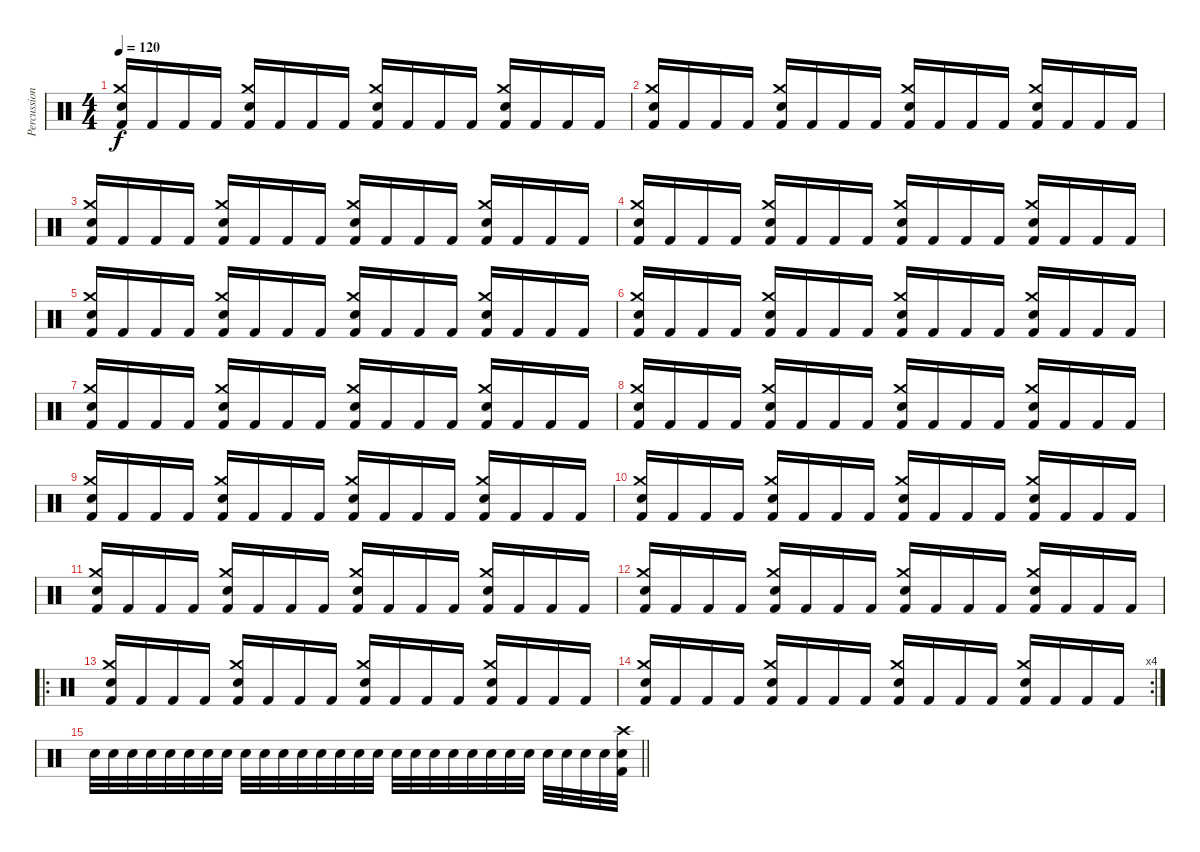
\track ("Percussion" "Percussion") {instrument percussion}
\staff {score}
\articulation defaults
\ts (4 4)
\tempo 120
\clef neutral
\ks c
("Electric Snare (hit)" "Crash medium (hit)" "Kick (hit) 2").16{dy f} "Kick (hit) 2".16 "Kick (hit) 2".16 "Kick (hit) 2".16 ("Electric Snare (hit)" "Crash medium (hit)" "Kick (hit) 2").16 "Kick (hit) 2".16 "Kick (hit) 2".16 "Kick (hit) 2".16 ("Electric Snare (hit)" "Crash medium (hit)" "Kick (hit) 2").16 "Kick (hit) 2".16 "Kick (hit) 2".16 "Kick (hit) 2".16 ("Electric Snare (hit)" "Crash medium (hit)" "Kick (hit) 2").16 "Kick (hit) 2".16 "Kick (hit) 2".16 "Kick (hit) 2".16 |
("Electric Snare (hit)" "Crash medium (hit)" "Kick (hit) 2").16 "Kick (hit) 2".16 "Kick (hit) 2".16 "Kick (hit) 2".16 ("Electric Snare (hit)" "Crash medium (hit)" "Kick (hit) 2").16 "Kick (hit) 2".16 "Kick (hit) 2".16 "Kick (hit) 2".16 ("Electric Snare (hit)" "Crash medium (hit)" "Kick (hit) 2").16 "Kick (hit) 2".16 "Kick (hit) 2".16 "Kick (hit) 2".16 ("Electric Snare (hit)" "Crash medium (hit)" "Kick (hit) 2").16 "Kick (hit) 2".16 "Kick (hit) 2".16 "Kick (hit) 2".16 |
("Electric Snare (hit)" "Crash medium (hit)" "Kick (hit) 2").16 "Kick (hit) 2".16 "Kick (hit) 2".16 "Kick (hit) 2".16 ("Electric Snare (hit)" "Crash medium (hit)" "Kick (hit) 2").16 "Kick (hit) 2".16 "Kick (hit) 2".16 "Kick (hit) 2".16 ("Electric Snare (hit)" "Crash medium (hit)" "Kick (hit) 2").16 "Kick (hit) 2".16 "Kick (hit) 2".16 "Kick (hit) 2".16 ("Electric Snare (hit)" "Crash medium (hit)" "Kick (hit) 2").16 "Kick (hit) 2".16 "Kick (hit) 2".16 "Kick (hit) 2".16 |
("Electric Snare (hit)" "Crash medium (hit)" "Kick (hit) 2").16 "Kick (hit) 2".16 "Kick (hit) 2".16 "Kick (hit) 2".16 ("Electric Snare (hit)" "Crash medium (hit)" "Kick (hit) 2").16 "Kick (hit) 2".16 "Kick (hit) 2".16 "Kick (hit) 2".16 ("Electric Snare (hit)" "Crash medium (hit)" "Kick (hit) 2").16 "Kick (hit) 2".16 "Kick (hit) 2".16 "Kick (hit) 2".16 ("Electric Snare (hit)" "Crash medium (hit)" "Kick (hit) 2").16 "Kick (hit) 2".16 "Kick (hit) 2".16 "Kick (hit) 2".16 |
("Electric Snare (hit)" "Crash medium (hit)" "Kick (hit) 2").16 "Kick (hit) 2".16 "Kick (hit) 2".16 "Kick (hit) 2".16 ("Electric Snare (hit)" "Crash medium (hit)" "Kick (hit) 2").16 "Kick (hit) 2".16 "Kick (hit) 2".16 "Kick (hit) 2".16 ("Electric Snare (hit)" "Crash medium (hit)" "Kick (hit) 2").16 "Kick (hit) 2".16 "Kick (hit) 2".16 "Kick (hit) 2".16 ("Electric Snare (hit)" "Crash medium (hit)" "Kick (hit) 2").16 "Kick (hit) 2".16 "Kick (hit) 2".16 "Kick (hit) 2".16 |
("Electric Snare (hit)" "Crash medium (hit)" "Kick (hit) 2").16 "Kick (hit) 2".16 "Kick (hit) 2".16 "Kick (hit) 2".16 ("Electric Snare (hit)" "Crash medium (hit)" "Kick (hit) 2").16 "Kick (hit) 2".16 "Kick (hit) 2".16 "Kick (hit) 2".16 ("Electric Snare (hit)" "Crash medium (hit)" "Kick (hit) 2").16 "Kick (hit) 2".16 "Kick (hit) 2".16 "Kick (hit) 2".16 ("Electric Snare (hit)" "Crash medium (hit)" "Kick (hit) 2").16 "Kick (hit) 2".16 "Kick (hit) 2".16 "Kick (hit) 2".16 |
("Electric Snare (hit)" "Crash medium (hit)" "Kick (hit) 2").16 "Kick (hit) 2".16 "Kick (hit) 2".16 "Kick (hit) 2".16 ("Electric Snare (hit)" "Crash medium (hit)" "Kick (hit) 2").16 "Kick (hit) 2".16 "Kick (hit) 2".16 "Kick (hit) 2".16 ("Electric Snare (hit)" "Crash medium (hit)" "Kick (hit) 2").16 "Kick (hit) 2".16 "Kick (hit) 2".16 "Kick (hit) 2".16 ("Electric Snare (hit)" "Crash medium (hit)" "Kick (hit) 2").16 "Kick (hit) 2".16 "Kick (hit) 2".16 "Kick (hit) 2".16 |
("Electric Snare (hit)" "Crash medium (hit)" "Kick (hit) 2").16 "Kick (hit) 2".16 "Kick (hit) 2".16 "Kick (hit) 2".16 ("Electric Snare (hit)" "Crash medium (hit)" "Kick (hit) 2").16 "Kick (hit) 2".16 "Kick (hit) 2".16 "Kick (hit) 2".16 ("Electric Snare (hit)" "Crash medium (hit)" "Kick (hit) 2").16 "Kick (hit) 2".16 "Kick (hit) 2".16 "Kick (hit) 2".16 ("Electric Snare (hit)" "Crash medium (hit)" "Kick (hit) 2").16 "Kick (hit) 2".16 "Kick (hit) 2".16 "Kick (hit) 2".16 |
("Electric Snare (hit)" "Crash medium (hit)" "Kick (hit) 2").16 "Kick (hit) 2".16 "Kick (hit) 2".16 "Kick (hit) 2".16 ("Electric Snare (hit)" "Crash medium (hit)" "Kick (hit) 2").16 "Kick (hit) 2".16 "Kick (hit) 2".16 "Kick (hit) 2".16 ("Electric Snare (hit)" "Crash medium (hit)" "Kick (hit) 2").16 "Kick (hit) 2".16 "Kick (hit) 2".16 "Kick (hit) 2".16 ("Electric Snare (hit)" "Crash medium (hit)" "Kick (hit) 2").16 "Kick (hit) 2".16 "Kick (hit) 2".16 "Kick (hit) 2".16 |
("Electric Snare (hit)" "Crash medium (hit)" "Kick (hit) 2").16 "Kick (hit) 2".16 "Kick (hit) 2".16 "Kick (hit) 2".16 ("Electric Snare (hit)" "Crash medium (hit)" "Kick (hit) 2").16 "Kick (hit) 2".16 "Kick (hit) 2".16 "Kick (hit) 2".16 ("Electric Snare (hit)" "Crash medium (hit)" "Kick (hit) 2").16 "Kick (hit) 2".16 "Kick (hit) 2".16 "Kick (hit) 2".16 ("Electric Snare (hit)" "Crash medium (hit)" "Kick (hit) 2").16 "Kick (hit) 2".16 "Kick (hit) 2".16 "Kick (hit) 2".16 |
("Electric Snare (hit)" "Crash medium (hit)" "Kick (hit) 2").16 "Kick (hit) 2".16 "Kick (hit) 2".16 "Kick (hit) 2".16 ("Electric Snare (hit)" "Crash medium (hit)" "Kick (hit) 2").16 "Kick (hit) 2".16 "Kick (hit) 2".16 "Kick (hit) 2".16 ("Electric Snare (hit)" "Crash medium (hit)" "Kick (hit) 2").16 "Kick (hit) 2".16 "Kick (hit) 2".16 "Kick (hit) 2".16 ("Electric Snare (hit)" "Crash medium (hit)" "Kick (hit) 2").16 "Kick (hit) 2".16 "Kick (hit) 2".16 "Kick (hit) 2".16 |
("Electric Snare (hit)" "Crash medium (hit)" "Kick (hit) 2").16 "Kick (hit) 2".16 "Kick (hit) 2".16 "Kick (hit) 2".16 ("Electric Snare (hit)" "Crash medium (hit)" "Kick (hit) 2").16 "Kick (hit) 2".16 "Kick (hit) 2".16 "Kick (hit) 2".16 ("Electric Snare (hit)" "Crash medium (hit)" "Kick (hit) 2").16 "Kick (hit) 2".16 "Kick (hit) 2".16 "Kick (hit) 2".16 ("Electric Snare (hit)" "Crash medium (hit)" "Kick (hit) 2").16 "Kick (hit) 2".16 "Kick (hit) 2".16 "Kick (hit) 2".16 |
\ro
("Electric Snare (hit)" "Crash medium (hit)" "Kick (hit) 2").16 "Kick (hit) 2".16 "Kick (hit) 2".16 "Kick (hit) 2".16 ("Electric Snare (hit)" "Crash medium (hit)" "Kick (hit) 2").16 "Kick (hit) 2".16 "Kick (hit) 2".16 "Kick (hit) 2".16 ("Electric Snare (hit)" "Crash medium (hit)" "Kick (hit) 2").16 "Kick (hit) 2".16 "Kick (hit) 2".16 "Kick (hit) 2".16 ("Electric Snare (hit)" "Crash medium (hit)" "Kick (hit) 2").16 "Kick (hit) 2".16 "Kick (hit) 2".16 "Kick (hit) 2".16 |
\rc 4
("Electric Snare (hit)" "Crash medium (hit)" "Kick (hit) 2").16 "Kick (hit) 2".16 "Kick (hit) 2".16 "Kick (hit) 2".16 ("Electric Snare (hit)" "Crash medium (hit)" "Kick (hit) 2").16 "Kick (hit) 2".16 "Kick (hit) 2".16 "Kick (hit) 2".16 ("Electric Snare (hit)" "Crash medium (hit)" "Kick (hit) 2").16 "Kick (hit) 2".16 "Kick (hit) 2".16 "Kick (hit) 2".16 ("Electric Snare (hit)" "Crash medium (hit)" "Kick (hit) 2").16 "Kick (hit) 2".16 "Kick (hit) 2".16 "Kick (hit) 2".16 |
\barLineRight lightlight "Electric Snare (hit)".32 "Electric Snare (hit)".32 "Electric Snare (hit)".32 "Electric Snare (hit)".32 "Electric Snare (hit)".32 "Electric Snare (hit)".32 "Electric Snare (hit)".32 "Electric Snare (hit)".32 "Electric Snare (hit)".32 "Electric Snare (hit)".32 "Electric Snare (hit)".32 "Electric Snare (hit)".32 "Electric Snare (hit)".32 "Electric Snare (hit)".32 "Electric Snare (hit)".32 "Electric Snare (hit)".32 "Electric Snare (hit)".32 "Electric Snare (hit)".32 "Electric Snare (hit)".32 "Electric Snare (hit)".32 "Electric Snare (hit)".32 "Electric Snare (hit)".32 "Electric Snare (hit)".32 "Electric Snare (hit)".32 "Electric Snare (hit)".32 "Electric Snare (hit)".32 "Electric Snare (hit)".32 "Electric Snare (hit)".32
("Electric Snare (hit)" "Crash high (hit)" "Kick (hit) 2").32
